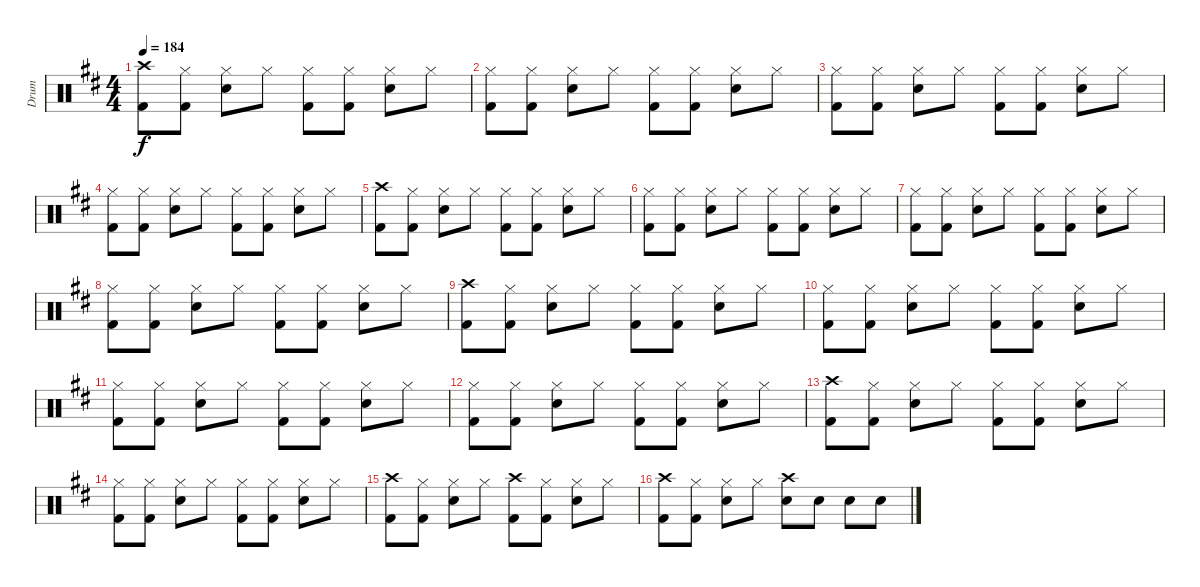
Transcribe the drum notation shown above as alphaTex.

\track ("Drum" "Drum") {instrument percussion}
\staff {score}
\articulation defaults
\ts (4 4)
\tempo 184
\clef neutral
\ks d
("Crash high (hit)" "Kick (hit) 2").8{dy f} ("Hi-Hat (closed)" "Kick (hit) 2").8 ("Hi-Hat (closed)" "Electric Snare (hit)").8 "Hi-Hat (closed)".8 ("Hi-Hat (closed)" "Kick (hit) 2").8 ("Hi-Hat (closed)" "Kick (hit) 2").8 ("Hi-Hat (closed)" "Electric Snare (hit)").8 "Hi-Hat (closed)".8 |
("Hi-Hat (closed)" "Kick (hit) 2").8 ("Hi-Hat (closed)" "Kick (hit) 2").8 ("Hi-Hat (closed)" "Electric Snare (hit)").8 "Hi-Hat (closed)".8 ("Hi-Hat (closed)" "Kick (hit) 2").8 ("Hi-Hat (closed)" "Kick (hit) 2").8 ("Hi-Hat (closed)" "Electric Snare (hit)").8 "Hi-Hat (closed)".8 |
("Hi-Hat (closed)" "Kick (hit) 2").8 ("Hi-Hat (closed)" "Kick (hit) 2").8 ("Hi-Hat (closed)" "Electric Snare (hit)").8 "Hi-Hat (closed)".8 ("Hi-Hat (closed)" "Kick (hit) 2").8 ("Hi-Hat (closed)" "Kick (hit) 2").8 ("Hi-Hat (closed)" "Electric Snare (hit)").8 "Hi-Hat (closed)".8 |
("Hi-Hat (closed)" "Kick (hit) 2").8 ("Hi-Hat (closed)" "Kick (hit) 2").8 ("Hi-Hat (closed)" "Electric Snare (hit)").8 "Hi-Hat (closed)".8 ("Hi-Hat (closed)" "Kick (hit) 2").8 ("Hi-Hat (closed)" "Kick (hit) 2").8 ("Hi-Hat (closed)" "Electric Snare (hit)").8 "Hi-Hat (closed)".8 |
("Crash high (hit)" "Kick (hit) 2").8 ("Hi-Hat (closed)" "Kick (hit) 2").8 ("Hi-Hat (closed)" "Electric Snare (hit)").8 "Hi-Hat (closed)".8 ("Hi-Hat (closed)" "Kick (hit) 2").8 ("Hi-Hat (closed)" "Kick (hit) 2").8 ("Hi-Hat (closed)" "Electric Snare (hit)").8 "Hi-Hat (closed)".8 |
("Hi-Hat (closed)" "Kick (hit) 2").8 ("Hi-Hat (closed)" "Kick (hit) 2").8 ("Hi-Hat (closed)" "Electric Snare (hit)").8 "Hi-Hat (closed)".8 ("Hi-Hat (closed)" "Kick (hit) 2").8 ("Hi-Hat (closed)" "Kick (hit) 2").8 ("Hi-Hat (closed)" "Electric Snare (hit)").8 "Hi-Hat (closed)".8 |
("Hi-Hat (closed)" "Kick (hit) 2").8 ("Hi-Hat (closed)" "Kick (hit) 2").8 ("Hi-Hat (closed)" "Electric Snare (hit)").8 "Hi-Hat (closed)".8 ("Hi-Hat (closed)" "Kick (hit) 2").8 ("Hi-Hat (closed)" "Kick (hit) 2").8 ("Hi-Hat (closed)" "Electric Snare (hit)").8 "Hi-Hat (closed)".8 |
("Hi-Hat (closed)" "Kick (hit) 2").8 ("Hi-Hat (closed)" "Kick (hit) 2").8 ("Hi-Hat (closed)" "Electric Snare (hit)").8 "Hi-Hat (closed)".8 ("Hi-Hat (closed)" "Kick (hit) 2").8 ("Hi-Hat (closed)" "Kick (hit) 2").8 ("Hi-Hat (closed)" "Electric Snare (hit)").8 "Hi-Hat (closed)".8 |
("Crash high (hit)" "Kick (hit) 2").8 ("Hi-Hat (closed)" "Kick (hit) 2").8 ("Hi-Hat (closed)" "Electric Snare (hit)").8 "Hi-Hat (closed)".8 ("Hi-Hat (closed)" "Kick (hit) 2").8 ("Hi-Hat (closed)" "Kick (hit) 2").8 ("Hi-Hat (closed)" "Electric Snare (hit)").8 "Hi-Hat (closed)".8 |
("Hi-Hat (closed)" "Kick (hit) 2").8 ("Hi-Hat (closed)" "Kick (hit) 2").8 ("Hi-Hat (closed)" "Electric Snare (hit)").8 "Hi-Hat (closed)".8 ("Hi-Hat (closed)" "Kick (hit) 2").8 ("Hi-Hat (closed)" "Kick (hit) 2").8 ("Hi-Hat (closed)" "Electric Snare (hit)").8 "Hi-Hat (closed)".8 |
("Hi-Hat (closed)" "Kick (hit) 2").8 ("Hi-Hat (closed)" "Kick (hit) 2").8 ("Hi-Hat (closed)" "Electric Snare (hit)").8 "Hi-Hat (closed)".8 ("Hi-Hat (closed)" "Kick (hit) 2").8 ("Hi-Hat (closed)" "Kick (hit) 2").8 ("Hi-Hat (closed)" "Electric Snare (hit)").8 "Hi-Hat (closed)".8 |
("Hi-Hat (closed)" "Kick (hit) 2").8 ("Hi-Hat (closed)" "Kick (hit) 2").8 ("Hi-Hat (closed)" "Electric Snare (hit)").8 "Hi-Hat (closed)".8 ("Hi-Hat (closed)" "Kick (hit) 2").8 ("Hi-Hat (closed)" "Kick (hit) 2").8 ("Hi-Hat (closed)" "Electric Snare (hit)").8 "Hi-Hat (closed)".8 |
("Crash high (hit)" "Kick (hit) 2").8 ("Hi-Hat (closed)" "Kick (hit) 2").8 ("Hi-Hat (closed)" "Electric Snare (hit)").8 "Hi-Hat (closed)".8 ("Hi-Hat (closed)" "Kick (hit) 2").8 ("Hi-Hat (closed)" "Kick (hit) 2").8 ("Hi-Hat (closed)" "Electric Snare (hit)").8 "Hi-Hat (closed)".8 |
("Hi-Hat (closed)" "Kick (hit) 2").8 ("Hi-Hat (closed)" "Kick (hit) 2").8 ("Hi-Hat (closed)" "Electric Snare (hit)").8 "Hi-Hat (closed)".8 ("Hi-Hat (closed)" "Kick (hit) 2").8 ("Hi-Hat (closed)" "Kick (hit) 2").8 ("Hi-Hat (closed)" "Electric Snare (hit)").8 "Hi-Hat (closed)".8 |
("Crash high (hit)" "Kick (hit) 2").8 ("Hi-Hat (closed)" "Kick (hit) 2").8 ("Hi-Hat (closed)" "Electric Snare (hit)").8 "Hi-Hat (closed)".8 ("Crash high (hit)" "Kick (hit) 2").8 ("Hi-Hat (closed)" "Kick (hit) 2").8 ("Hi-Hat (closed)" "Electric Snare (hit)").8 "Hi-Hat (closed)".8 |
("Crash high (hit)" "Kick (hit) 2").8 ("Hi-Hat (closed)" "Kick (hit) 2").8 ("Hi-Hat (closed)" "Electric Snare (hit)").8 "Hi-Hat (closed)".8 ("Crash high (hit)" "Electric Snare (hit)").8 "Electric Snare (hit)".8 "Electric Snare (hit)".8 "Electric Snare (hit)".8
